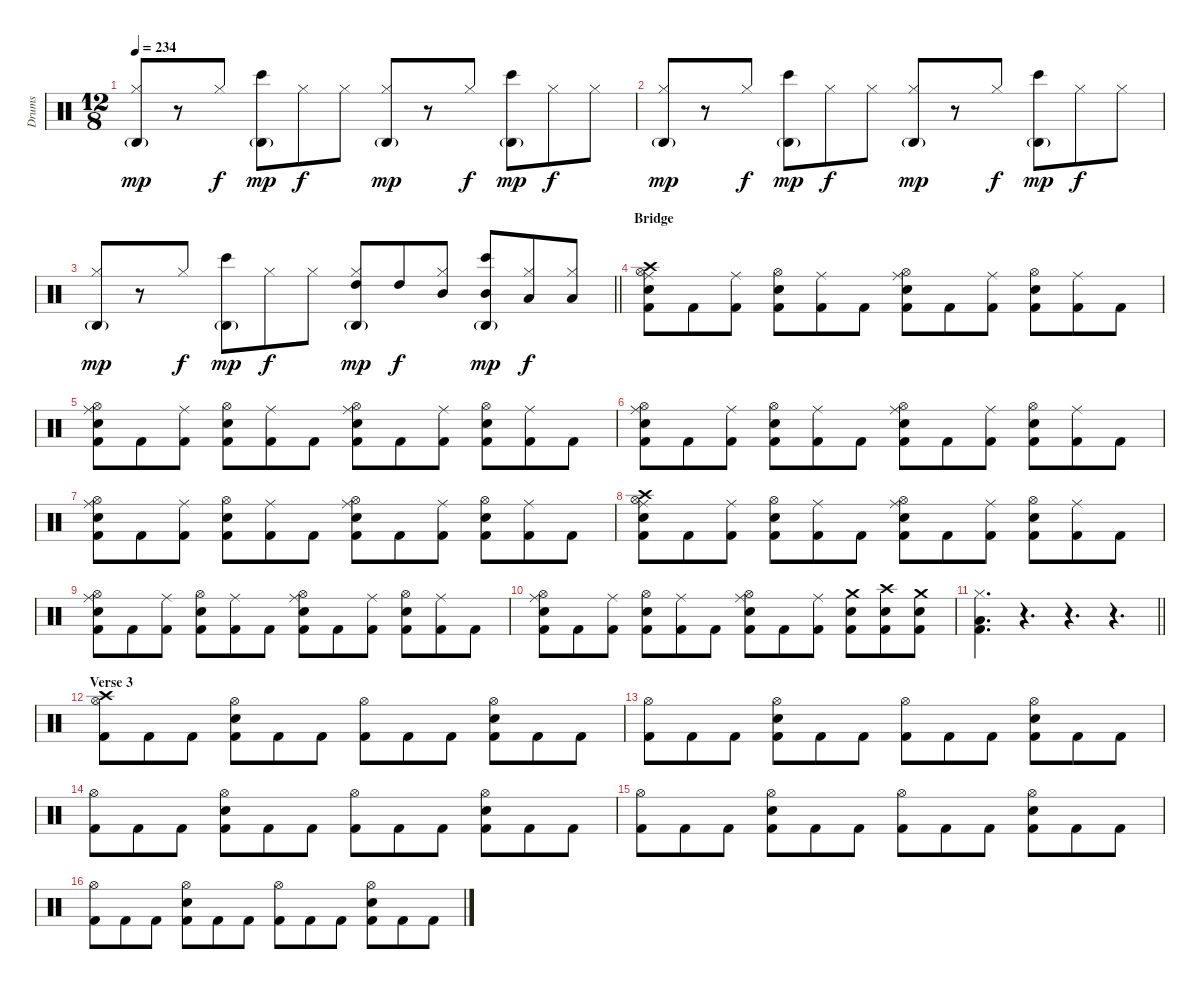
\track ("Drums" "Drums") {instrument percussion}
\staff {score}
\articulation defaults
\ts (12 8)
\tempo 234
\clef neutral
\ks c
("Agogo high (hit)"{g} "Hi-Hat (closed)").8{dy mp} r.8 "Hi-Hat (closed)".8{dy f} ("Agogo high (hit)"{g} "Bongo High (hit)").8{dy mp} "Hi-Hat (closed)".8{dy f} "Hi-Hat (closed)".8 ("Agogo high (hit)"{g} "Hi-Hat (closed)").8{dy mp} r.8 "Hi-Hat (closed)".8{dy f} ("Agogo high (hit)"{g} "Bongo High (hit)").8{dy mp} "Hi-Hat (closed)".8{dy f} "Hi-Hat (closed)".8 |
("Agogo high (hit)"{g} "Hi-Hat (closed)").8{dy mp} r.8 "Hi-Hat (closed)".8{dy f} ("Agogo high (hit)"{g} "Bongo High (hit)").8{dy mp} "Hi-Hat (closed)".8{dy f} "Hi-Hat (closed)".8 ("Agogo high (hit)"{g} "Hi-Hat (closed)").8{dy mp} r.8 "Hi-Hat (closed)".8{dy f} ("Agogo high (hit)"{g} "Bongo High (hit)").8{dy mp} "Hi-Hat (closed)".8{dy f} "Hi-Hat (closed)".8 |
\barLineRight lightlight
("Agogo high (hit)"{g} "Hi-Hat (closed)").8{dy mp} r.8 "Hi-Hat (closed)".8{dy f} ("Agogo high (hit)"{g} "Bongo High (hit)").8{dy mp} "Hi-Hat (closed)".8{dy f} "Hi-Hat (closed)".8 ("Agogo high (hit)"{g} "High Tom (hit)" "Hi-Hat (closed)").8{dy mp} "High Tom (hit)".8{dy f} ("Mid Tom (hit)" "Hi-Hat (closed)").8 ("Agogo high (hit)"{g} "Mid Tom (hit)" "Bongo High (hit)").8{dy mp} ("Low Tom (hit)" "Hi-Hat (closed)").8{dy f} ("Low Tom (hit)" "Hi-Hat (closed)").8 |
\section ("" "Bridge")
("Crash high (hit)" "Ride (middle)" "Hi-Hat (open)" "Snare (hit) 2" "Kick (hit) 2").8 "Kick (hit) 2".8 ("Ride (middle)" "Kick (hit) 2").8 ("Hi-Hat (open)" "Snare (hit) 2" "Kick (hit) 2").8 ("Ride (middle)" "Kick (hit) 2").8 "Kick (hit) 2".8 ("Ride (middle)" "Hi-Hat (open)" "Snare (hit) 2" "Kick (hit) 2").8 "Kick (hit) 2".8 ("Ride (middle)" "Kick (hit) 2").8 ("Hi-Hat (open)" "Snare (hit) 2" "Kick (hit) 2").8 ("Ride (middle)" "Kick (hit) 2").8 "Kick (hit) 2".8 |
("Ride (middle)" "Hi-Hat (open)" "Snare (hit) 2" "Kick (hit) 2").8 "Kick (hit) 2".8 ("Ride (middle)" "Kick (hit) 2").8 ("Hi-Hat (open)" "Snare (hit) 2" "Kick (hit) 2").8 ("Ride (middle)" "Kick (hit) 2").8 "Kick (hit) 2".8 ("Ride (middle)" "Hi-Hat (open)" "Snare (hit) 2" "Kick (hit) 2").8 "Kick (hit) 2".8 ("Ride (middle)" "Kick (hit) 2").8 ("Hi-Hat (open)" "Snare (hit) 2" "Kick (hit) 2").8 ("Ride (middle)" "Kick (hit) 2").8 "Kick (hit) 2".8 |
("Ride (middle)" "Hi-Hat (open)" "Snare (hit) 2" "Kick (hit) 2").8 "Kick (hit) 2".8 ("Ride (middle)" "Kick (hit) 2").8 ("Hi-Hat (open)" "Snare (hit) 2" "Kick (hit) 2").8 ("Ride (middle)" "Kick (hit) 2").8 "Kick (hit) 2".8 ("Ride (middle)" "Hi-Hat (open)" "Snare (hit) 2" "Kick (hit) 2").8 "Kick (hit) 2".8 ("Ride (middle)" "Kick (hit) 2").8 ("Hi-Hat (open)" "Snare (hit) 2" "Kick (hit) 2").8 ("Ride (middle)" "Kick (hit) 2").8 "Kick (hit) 2".8 |
("Ride (middle)" "Hi-Hat (open)" "Snare (hit) 2" "Kick (hit) 2").8 "Kick (hit) 2".8 ("Ride (middle)" "Kick (hit) 2").8 ("Hi-Hat (open)" "Snare (hit) 2" "Kick (hit) 2").8 ("Ride (middle)" "Kick (hit) 2").8 "Kick (hit) 2".8 ("Ride (middle)" "Hi-Hat (open)" "Snare (hit) 2" "Kick (hit) 2").8 "Kick (hit) 2".8 ("Ride (middle)" "Kick (hit) 2").8 ("Hi-Hat (open)" "Snare (hit) 2" "Kick (hit) 2").8 ("Ride (middle)" "Kick (hit) 2").8 "Kick (hit) 2".8 |
("Crash high (hit)" "Ride (middle)" "Hi-Hat (open)" "Snare (hit) 2" "Kick (hit) 2").8 "Kick (hit) 2".8 ("Ride (middle)" "Kick (hit) 2").8 ("Hi-Hat (open)" "Snare (hit) 2" "Kick (hit) 2").8 ("Ride (middle)" "Kick (hit) 2").8 "Kick (hit) 2".8 ("Ride (middle)" "Hi-Hat (open)" "Snare (hit) 2" "Kick (hit) 2").8 "Kick (hit) 2".8 ("Ride (middle)" "Kick (hit) 2").8 ("Hi-Hat (open)" "Snare (hit) 2" "Kick (hit) 2").8 ("Ride (middle)" "Kick (hit) 2").8 "Kick (hit) 2".8 |
("Ride (middle)" "Hi-Hat (open)" "Snare (hit) 2" "Kick (hit) 2").8 "Kick (hit) 2".8 ("Ride (middle)" "Kick (hit) 2").8 ("Hi-Hat (open)" "Snare (hit) 2" "Kick (hit) 2").8 ("Ride (middle)" "Kick (hit) 2").8 "Kick (hit) 2".8 ("Ride (middle)" "Hi-Hat (open)" "Snare (hit) 2" "Kick (hit) 2").8 "Kick (hit) 2".8 ("Ride (middle)" "Kick (hit) 2").8 ("Hi-Hat (open)" "Snare (hit) 2" "Kick (hit) 2").8 ("Ride (middle)" "Kick (hit) 2").8 "Kick (hit) 2".8 |
("Ride (middle)" "Hi-Hat (open)" "Snare (hit) 2" "Kick (hit) 2").8 "Kick (hit) 2".8 ("Ride (middle)" "Kick (hit) 2").8 ("Hi-Hat (open)" "Snare (hit) 2" "Kick (hit) 2").8 ("Ride (middle)" "Kick (hit) 2").8 "Kick (hit) 2".8 ("Ride (middle)" "Hi-Hat (open)" "Snare (hit) 2" "Kick (hit) 2").8 "Kick (hit) 2".8 ("Ride (middle)" "Kick (hit) 2").8 ("Crash medium (hit)" "Snare (hit) 2" "Kick (hit) 2").8 ("Crash high (hit)" "Snare (hit) 2" "Kick (hit) 2").8 ("Crash medium (hit)" "Snare (hit) 2" "Kick (hit) 2").8 |
\barLineRight lightlight
("Hi-Hat (closed)" "Low Floor Tom (hit)" "Kick (hit) 2").4{d} r.4{d} r.4{d} r.4{d} |
\section ("" "Verse 3")
("Crash high (hit)" "Hi-Hat (open)" "Kick (hit) 2").8 "Kick (hit) 2".8 "Kick (hit) 2".8 ("Hi-Hat (open)" "Snare (hit) 2" "Kick (hit) 2").8 "Kick (hit) 2".8 "Kick (hit) 2".8 ("Hi-Hat (open)" "Kick (hit) 2").8 "Kick (hit) 2".8 "Kick (hit) 2".8 ("Hi-Hat (open)" "Snare (hit) 2" "Kick (hit) 2").8 "Kick (hit) 2".8 "Kick (hit) 2".8 |
("Hi-Hat (open)" "Kick (hit) 2").8 "Kick (hit) 2".8 "Kick (hit) 2".8 ("Hi-Hat (open)" "Snare (hit) 2" "Kick (hit) 2").8 "Kick (hit) 2".8 "Kick (hit) 2".8 ("Hi-Hat (open)" "Kick (hit) 2").8 "Kick (hit) 2".8 "Kick (hit) 2".8 ("Hi-Hat (open)" "Snare (hit) 2" "Kick (hit) 2").8 "Kick (hit) 2".8 "Kick (hit) 2".8 |
("Hi-Hat (open)" "Kick (hit) 2").8 "Kick (hit) 2".8 "Kick (hit) 2".8 ("Hi-Hat (open)" "Snare (hit) 2" "Kick (hit) 2").8 "Kick (hit) 2".8 "Kick (hit) 2".8 ("Hi-Hat (open)" "Kick (hit) 2").8 "Kick (hit) 2".8 "Kick (hit) 2".8 ("Hi-Hat (open)" "Snare (hit) 2" "Kick (hit) 2").8 "Kick (hit) 2".8 "Kick (hit) 2".8 |
("Hi-Hat (open)" "Kick (hit) 2").8 "Kick (hit) 2".8 "Kick (hit) 2".8 ("Hi-Hat (open)" "Snare (hit) 2" "Kick (hit) 2").8 "Kick (hit) 2".8 "Kick (hit) 2".8 ("Hi-Hat (open)" "Kick (hit) 2").8 "Kick (hit) 2".8 "Kick (hit) 2".8 ("Hi-Hat (open)" "Snare (hit) 2" "Kick (hit) 2").8 "Kick (hit) 2".8 "Kick (hit) 2".8 |
("Hi-Hat (open)" "Kick (hit) 2").8 "Kick (hit) 2".8 "Kick (hit) 2".8 ("Hi-Hat (open)" "Snare (hit) 2" "Kick (hit) 2").8 "Kick (hit) 2".8 "Kick (hit) 2".8 ("Hi-Hat (open)" "Kick (hit) 2").8 "Kick (hit) 2".8 "Kick (hit) 2".8 ("Hi-Hat (open)" "Snare (hit) 2" "Kick (hit) 2").8 "Kick (hit) 2".8 "Kick (hit) 2".8
